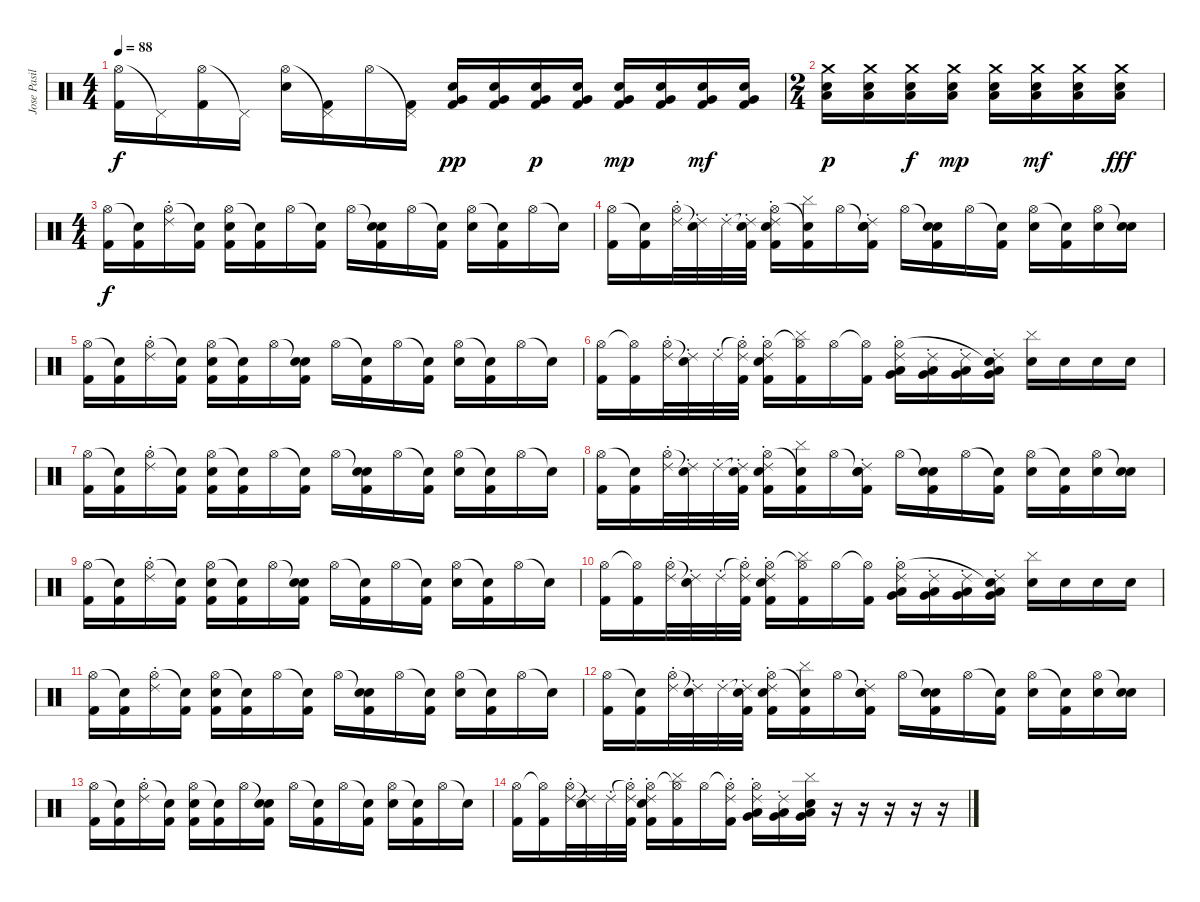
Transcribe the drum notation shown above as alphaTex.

\track ("Jose Pasillas/Dj Kilmore" "Jose Pasil") {instrument percussion}
\staff {score}
\articulation defaults
\ts (4 4)
\tempo 88
\clef neutral
\ks c
("Hi-Hat (open)" "Kick (hit) 2").16{dy f} "Pedal Hi-Hat (hit)"{t}.16 ("Hi-Hat (open)" "Kick (hit) 2").16 "Pedal Hi-Hat (hit)"{t}.16 ("Hi-Hat (open)" "Electric Snare (hit)").16 ("Pedal Hi-Hat (hit)"{t} "Kick (hit) 2").16 "Hi-Hat (open)".16 ("Pedal Hi-Hat (hit)"{t} "Kick (hit) 2").16 ("Very Low Tom (hit)" "Electric Snare (hit)" "Kick (hit) 2").16{dy pp} ("Very Low Tom (hit)" "Electric Snare (hit)" "Kick (hit) 2").16 ("Very Low Tom (hit)" "Electric Snare (hit)" "Kick (hit) 2").16{dy p} ("Very Low Tom (hit)" "Electric Snare (hit)" "Kick (hit) 2").16 ("Very Low Tom (hit)" "Electric Snare (hit)" "Kick (hit) 2").16{dy mp} ("Very Low Tom (hit)" "Electric Snare (hit)" "Kick (hit) 2").16 ("Very Low Tom (hit)" "Electric Snare (hit)" "Kick (hit) 2").16{dy mf} ("Very Low Tom (hit)" "Electric Snare (hit)" "Kick (hit) 2").16 |
\ts (2 4)
("Low Floor Tom (hit)" "Electric Snare (hit)" "Crash medium (hit)").16{dy p} ("Low Floor Tom (hit)" "Electric Snare (hit)" "Crash medium (hit)").16 ("Low Floor Tom (hit)" "Electric Snare (hit)" "Crash medium (hit)").16{dy f} ("Low Floor Tom (hit)" "Electric Snare (hit)" "Crash medium (hit)").16{dy mp} ("Low Floor Tom (hit)" "Electric Snare (hit)" "Crash medium (hit)").16 ("Low Floor Tom (hit)" "Electric Snare (hit)" "Crash medium (hit)").16{dy mf} ("Low Floor Tom (hit)" "Electric Snare (hit)" "Crash medium (hit)").16 ("Low Floor Tom (hit)" "Electric Snare (hit)" "Crash medium (hit)").16{dy fff} |
\ts (4 4)
("Hi-Hat (open)" "Kick (hit) 2").16{dy f} ("Snare (hit)"{t} "Kick (hit) 2").16 ("Hi-Hat (open)" "Ride (choke) 2").16 ("Snare (hit)"{t} "Kick (hit) 2").16 ("Hi-Hat (open)" "Electric Snare (hit)" "Kick (hit) 2").16 ("Snare (hit)"{t} "Kick (hit) 2").16 "Hi-Hat (open)".16 ("Snare (hit)"{t} "Kick (hit) 2").16 "Hi-Hat (open)".16 ("Snare (hit)"{t} "Electric Snare (hit)" "Kick (hit) 2").16 "Hi-Hat (open)".16 ("Snare (hit)"{t} "Kick (hit) 2").16 ("Hi-Hat (open)" "Electric Snare (hit)").16 ("Snare (hit)"{t} "Kick (hit) 2").16 "Hi-Hat (open)".16 "Snare (hit)"{t}.16 |
("Hi-Hat (open)" "Kick (hit) 2").16 ("Snare (hit)"{t} "Kick (hit) 2").16 ("Hi-Hat (open)" "Ride (choke) 2").32 ("Snare (hit)"{t} "Ride (choke) 2").32 "Ride (choke) 2".32 ("Snare (hit)"{t} "Ride (choke) 2" "Kick (hit) 2").32 ("Hi-Hat (open)" "Electric Snare (hit)" "Ride (choke) 2" "Kick (hit) 2").16 ("Snare (hit)"{t} "Cymbal (hit)" "Kick (hit) 2").16 "Hi-Hat (open)".16 ("Snare (hit)"{t} "Electric Snare (hit)" "Ride (choke) 2" "Kick (hit) 2").16 "Hi-Hat (open)".16 ("Snare (hit)"{t} "Electric Snare (hit)" "Kick (hit) 2").16 "Hi-Hat (open)".16 ("Snare (hit)"{t} "Kick (hit) 2").16 ("Hi-Hat (open)" "Electric Snare (hit)").16 ("Snare (hit)"{t} "Kick (hit) 2").16 ("Hi-Hat (open)" "Electric Snare (hit)").16 ("Snare (hit)"{t} "Electric Snare (hit)").16 |
("Hi-Hat (open)" "Kick (hit) 2").16 ("Snare (hit)"{t} "Kick (hit) 2").16 ("Hi-Hat (open)" "Ride (choke) 2").16 ("Snare (hit)"{t} "Kick (hit) 2").16 ("Hi-Hat (open)" "Electric Snare (hit)" "Kick (hit) 2").16 ("Snare (hit)"{t} "Kick (hit) 2").16 "Hi-Hat (open)".16 ("Snare (hit)"{t} "Electric Snare (hit)" "Kick (hit) 2").16 "Hi-Hat (open)".16 ("Snare (hit)"{t} "Kick (hit) 2").16 "Hi-Hat (open)".16 ("Snare (hit)"{t} "Kick (hit) 2").16 ("Hi-Hat (open)" "Electric Snare (hit)").16 ("Snare (hit)"{t} "Kick (hit) 2").16 "Hi-Hat (open)".16 "Snare (hit)"{t}.16 |
("Hi-Hat (open)" "Kick (hit) 2").16 ("Hi-Hat (open)"{t} "Kick (hit) 2").16 ("Hi-Hat (open)" "Ride (choke) 2").32 ("Snare (hit)"{t} "Ride (choke) 2").32 "Ride (choke) 2".32 ("Hi-Hat (open)"{t} "Ride (choke) 2" "Kick (hit) 2").32 ("Hi-Hat (open)" "Electric Snare (hit)" "Ride (choke) 2" "Kick (hit) 2").16 ("Hi-Hat (open)"{t} "Cymbal (hit)" "Kick (hit) 2").16 "Hi-Hat (open)".16 ("Hi-Hat (open)"{t} "Kick (hit) 2").16 ("Low Tom (hit)" "Very Low Tom (hit)" "Ride (choke) 2" "Hi-Hat (open)").16 ("Low Tom (hit)" "Very Low Tom (hit)" "Ride (choke) 2").16 ("Low Tom (hit)" "Very Low Tom (hit)" "Ride (choke) 2").16 ("Low Tom (hit)" "Very Low Tom (hit)" "Ride (choke) 2" "Snare (hit)"{t}).16 ("Electric Snare (hit)" "Cymbal (hit)").16 "Electric Snare (hit)".16 "Electric Snare (hit)".16 "Electric Snare (hit)".16 |
("Hi-Hat (open)" "Kick (hit) 2").16 ("Snare (hit)"{t} "Kick (hit) 2").16 ("Hi-Hat (open)" "Ride (choke) 2").16 ("Snare (hit)"{t} "Kick (hit) 2").16 ("Hi-Hat (open)" "Electric Snare (hit)" "Kick (hit) 2").16 ("Snare (hit)"{t} "Kick (hit) 2").16 "Hi-Hat (open)".16 ("Snare (hit)"{t} "Kick (hit) 2").16 "Hi-Hat (open)".16 ("Snare (hit)"{t} "Electric Snare (hit)" "Kick (hit) 2").16 "Hi-Hat (open)".16 ("Snare (hit)"{t} "Kick (hit) 2").16 ("Hi-Hat (open)" "Electric Snare (hit)").16 ("Snare (hit)"{t} "Kick (hit) 2").16 "Hi-Hat (open)".16 "Snare (hit)"{t}.16 |
("Hi-Hat (open)" "Kick (hit) 2").16 ("Snare (hit)"{t} "Kick (hit) 2").16 ("Hi-Hat (open)" "Ride (choke) 2").32 ("Snare (hit)"{t} "Ride (choke) 2").32 "Ride (choke) 2".32 ("Snare (hit)"{t} "Ride (choke) 2" "Kick (hit) 2").32 ("Hi-Hat (open)" "Electric Snare (hit)" "Ride (choke) 2" "Kick (hit) 2").16 ("Snare (hit)"{t} "Cymbal (hit)" "Kick (hit) 2").16 "Hi-Hat (open)".16 ("Snare (hit)"{t} "Electric Snare (hit)" "Ride (choke) 2" "Kick (hit) 2").16 "Hi-Hat (open)".16 ("Snare (hit)"{t} "Electric Snare (hit)" "Kick (hit) 2").16 "Hi-Hat (open)".16 ("Snare (hit)"{t} "Kick (hit) 2").16 ("Hi-Hat (open)" "Electric Snare (hit)").16 ("Snare (hit)"{t} "Kick (hit) 2").16 ("Hi-Hat (open)" "Electric Snare (hit)").16 ("Snare (hit)"{t} "Electric Snare (hit)").16 |
("Hi-Hat (open)" "Kick (hit) 2").16 ("Snare (hit)"{t} "Kick (hit) 2").16 ("Hi-Hat (open)" "Ride (choke) 2").16 ("Snare (hit)"{t} "Kick (hit) 2").16 ("Hi-Hat (open)" "Electric Snare (hit)" "Kick (hit) 2").16 ("Snare (hit)"{t} "Kick (hit) 2").16 "Hi-Hat (open)".16 ("Snare (hit)"{t} "Electric Snare (hit)" "Kick (hit) 2").16 "Hi-Hat (open)".16 ("Snare (hit)"{t} "Kick (hit) 2").16 "Hi-Hat (open)".16 ("Snare (hit)"{t} "Kick (hit) 2").16 ("Hi-Hat (open)" "Electric Snare (hit)").16 ("Snare (hit)"{t} "Kick (hit) 2").16 "Hi-Hat (open)".16 "Snare (hit)"{t}.16 |
("Hi-Hat (open)" "Kick (hit) 2").16 ("Hi-Hat (open)"{t} "Kick (hit) 2").16 ("Hi-Hat (open)" "Ride (choke) 2").32 ("Snare (hit)"{t} "Ride (choke) 2").32 "Ride (choke) 2".32 ("Hi-Hat (open)"{t} "Ride (choke) 2" "Kick (hit) 2").32 ("Hi-Hat (open)" "Electric Snare (hit)" "Ride (choke) 2" "Kick (hit) 2").16 ("Hi-Hat (open)"{t} "Cymbal (hit)" "Kick (hit) 2").16 "Hi-Hat (open)".16 ("Hi-Hat (open)"{t} "Kick (hit) 2").16 ("Low Tom (hit)" "Very Low Tom (hit)" "Ride (choke) 2" "Hi-Hat (open)").16 ("Low Tom (hit)" "Very Low Tom (hit)" "Ride (choke) 2").16 ("Low Tom (hit)" "Very Low Tom (hit)" "Ride (choke) 2").16 ("Low Tom (hit)" "Very Low Tom (hit)" "Ride (choke) 2" "Snare (hit)"{t}).16 ("Electric Snare (hit)" "Cymbal (hit)").16 "Electric Snare (hit)".16 "Electric Snare (hit)".16 "Electric Snare (hit)".16 |
("Hi-Hat (open)" "Kick (hit) 2").16 ("Snare (hit)"{t} "Kick (hit) 2").16 ("Hi-Hat (open)" "Ride (choke) 2").16 ("Snare (hit)"{t} "Kick (hit) 2").16 ("Hi-Hat (open)" "Electric Snare (hit)" "Kick (hit) 2").16 ("Snare (hit)"{t} "Kick (hit) 2").16 "Hi-Hat (open)".16 ("Snare (hit)"{t} "Kick (hit) 2").16 "Hi-Hat (open)".16 ("Snare (hit)"{t} "Electric Snare (hit)" "Kick (hit) 2").16 "Hi-Hat (open)".16 ("Snare (hit)"{t} "Kick (hit) 2").16 ("Hi-Hat (open)" "Electric Snare (hit)").16 ("Snare (hit)"{t} "Kick (hit) 2").16 "Hi-Hat (open)".16 "Snare (hit)"{t}.16 |
("Hi-Hat (open)" "Kick (hit) 2").16 ("Snare (hit)"{t} "Kick (hit) 2").16 ("Hi-Hat (open)" "Ride (choke) 2").32 ("Snare (hit)"{t} "Ride (choke) 2").32 "Ride (choke) 2".32 ("Snare (hit)"{t} "Ride (choke) 2" "Kick (hit) 2").32 ("Hi-Hat (open)" "Electric Snare (hit)" "Ride (choke) 2" "Kick (hit) 2").16 ("Snare (hit)"{t} "Cymbal (hit)" "Kick (hit) 2").16 "Hi-Hat (open)".16 ("Snare (hit)"{t} "Electric Snare (hit)" "Ride (choke) 2" "Kick (hit) 2").16 "Hi-Hat (open)".16 ("Snare (hit)"{t} "Electric Snare (hit)" "Kick (hit) 2").16 "Hi-Hat (open)".16 ("Snare (hit)"{t} "Kick (hit) 2").16 ("Hi-Hat (open)" "Electric Snare (hit)").16 ("Snare (hit)"{t} "Kick (hit) 2").16 ("Hi-Hat (open)" "Electric Snare (hit)").16 ("Snare (hit)"{t} "Electric Snare (hit)").16 |
("Hi-Hat (open)" "Kick (hit) 2").16 ("Snare (hit)"{t} "Kick (hit) 2").16 ("Hi-Hat (open)" "Ride (choke) 2").16 ("Snare (hit)"{t} "Kick (hit) 2").16 ("Hi-Hat (open)" "Electric Snare (hit)" "Kick (hit) 2").16 ("Snare (hit)"{t} "Kick (hit) 2").16 "Hi-Hat (open)".16 ("Snare (hit)"{t} "Electric Snare (hit)" "Kick (hit) 2").16 "Hi-Hat (open)".16 ("Snare (hit)"{t} "Kick (hit) 2").16 "Hi-Hat (open)".16 ("Snare (hit)"{t} "Kick (hit) 2").16 ("Hi-Hat (open)" "Electric Snare (hit)").16 ("Snare (hit)"{t} "Kick (hit) 2").16 "Hi-Hat (open)".16 "Snare (hit)"{t}.16 |
("Hi-Hat (open)" "Kick (hit) 2").16 ("Hi-Hat (open)"{t} "Kick (hit) 2").16 ("Hi-Hat (open)" "Ride (choke) 2").32 ("Snare (hit)"{t} "Ride (choke) 2").32 "Ride (choke) 2".32 ("Hi-Hat (open)"{t} "Ride (choke) 2" "Kick (hit) 2").32 ("Hi-Hat (open)" "Electric Snare (hit)" "Ride (choke) 2" "Kick (hit) 2").16 ("Hi-Hat (open)"{t} "Cymbal (hit)" "Kick (hit) 2").16 "Hi-Hat (open)".16 ("Hi-Hat (open)"{t} "Ride (choke) 2" "Kick (hit) 2").16 ("Low Tom (hit)" "Very Low Tom (hit)" "Ride (choke) 2" "Hi-Hat (open)").16 ("Low Tom (hit)" "Very Low Tom (hit)" "Ride (choke) 2").16 ("Low Tom (hit)" "Very Low Tom (hit)" "Cymbal (hit)" "Electric Snare (hit)").16 r.16 r.16 r.16 r.16 r.16
